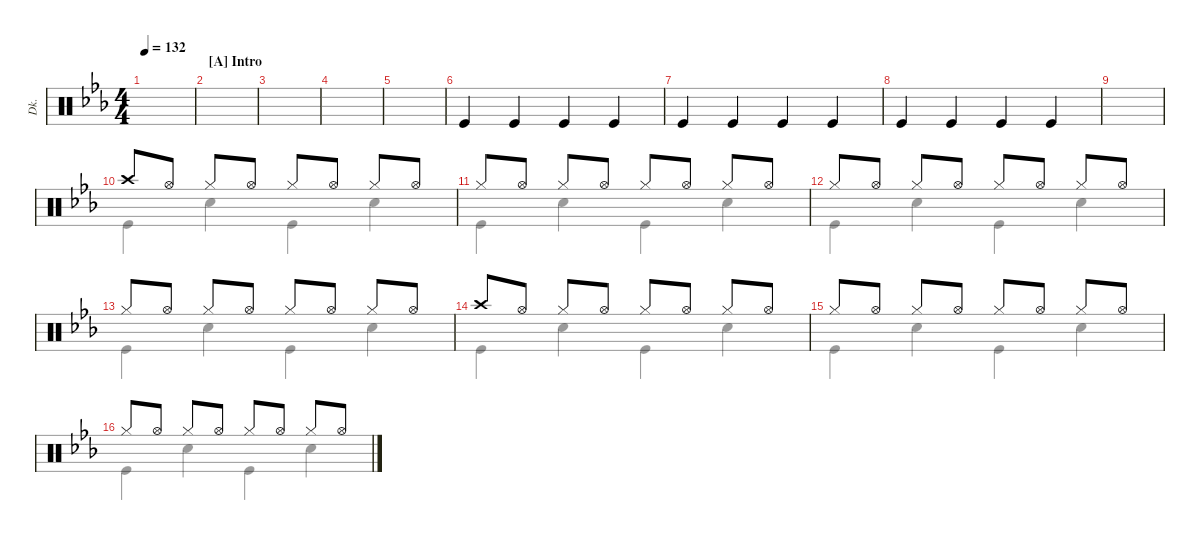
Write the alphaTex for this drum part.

\defaultSystemsLayout 4
\hideDynamics
\bracketExtendMode nobrackets
\otherSystemsTrackNameOrientation horizontal
\track ("Drumkit" "Dk.") {instrument percussion}
\staff {score}
\articulation defaults
\voice
\ts (4 4)
\ac
\tempo 132
\clef neutral
\ks eb
|
\section ("A" "Intro")
|
|
|
|
"Kick (hit)".4 "Kick (hit)".4 "Kick (hit)".4 "Kick (hit)".4 |
"Kick (hit)".4 "Kick (hit)".4 "Kick (hit)".4 "Kick (hit)".4 |
"Kick (hit)".4 "Kick (hit)".4 "Kick (hit)".4 "Kick (hit)".4 |
|
"Crash high (hit)".8 "Hi-Hat (open)".8 "Hi-Hat (closed)".8 "Hi-Hat (open)".8 "Hi-Hat (closed)".8 "Hi-Hat (open)".8 "Hi-Hat (closed)".8 "Hi-Hat (open)".8 |
"Hi-Hat (closed)".8 "Hi-Hat (open)".8 "Hi-Hat (closed)".8 "Hi-Hat (open)".8 "Hi-Hat (closed)".8 "Hi-Hat (open)".8 "Hi-Hat (closed)".8 "Hi-Hat (open)".8 |
"Hi-Hat (closed)".8 "Hi-Hat (open)".8 "Hi-Hat (closed)".8 "Hi-Hat (open)".8 "Hi-Hat (closed)".8 "Hi-Hat (open)".8 "Hi-Hat (closed)".8 "Hi-Hat (open)".8 |
"Hi-Hat (closed)".8 "Hi-Hat (open)".8 "Hi-Hat (closed)".8 "Hi-Hat (open)".8 "Hi-Hat (closed)".8 "Hi-Hat (open)".8 "Hi-Hat (closed)".8 "Hi-Hat (open)".8 |
"Crash high (hit)".8 "Hi-Hat (open)".8 "Hi-Hat (closed)".8 "Hi-Hat (open)".8 "Hi-Hat (closed)".8 "Hi-Hat (open)".8 "Hi-Hat (closed)".8 "Hi-Hat (open)".8 |
"Hi-Hat (closed)".8 "Hi-Hat (open)".8 "Hi-Hat (closed)".8 "Hi-Hat (open)".8 "Hi-Hat (closed)".8 "Hi-Hat (open)".8 "Hi-Hat (closed)".8 "Hi-Hat (open)".8 |
"Hi-Hat (closed)".8 "Hi-Hat (open)".8 "Hi-Hat (closed)".8 "Hi-Hat (open)".8 "Hi-Hat (closed)".8 "Hi-Hat (open)".8 "Hi-Hat (closed)".8 "Hi-Hat (open)".8
\voice
\clef neutral
\ottava regular
\simile none
\ks eb
|
|
|
|
|
|
|
|
|
"Kick (hit)".4 "Snare (hit) 2".4 "Kick (hit)".4 "Snare (hit) 2".4 |
"Kick (hit)".4 "Snare (hit) 2".4 "Kick (hit)".4 "Snare (hit) 2".4 |
"Kick (hit)".4 "Snare (hit) 2".4 "Kick (hit)".4 "Snare (hit) 2".4 |
"Kick (hit)".4 "Snare (hit) 2".4 "Kick (hit)".4 "Snare (hit) 2".4 |
"Kick (hit)".4 "Snare (hit) 2".4 "Kick (hit)".4 "Snare (hit) 2".4 |
"Kick (hit)".4 "Snare (hit) 2".4 "Kick (hit)".4 "Snare (hit) 2".4 |
"Kick (hit)".4 "Snare (hit) 2".4 "Kick (hit)".4 "Snare (hit) 2".4
